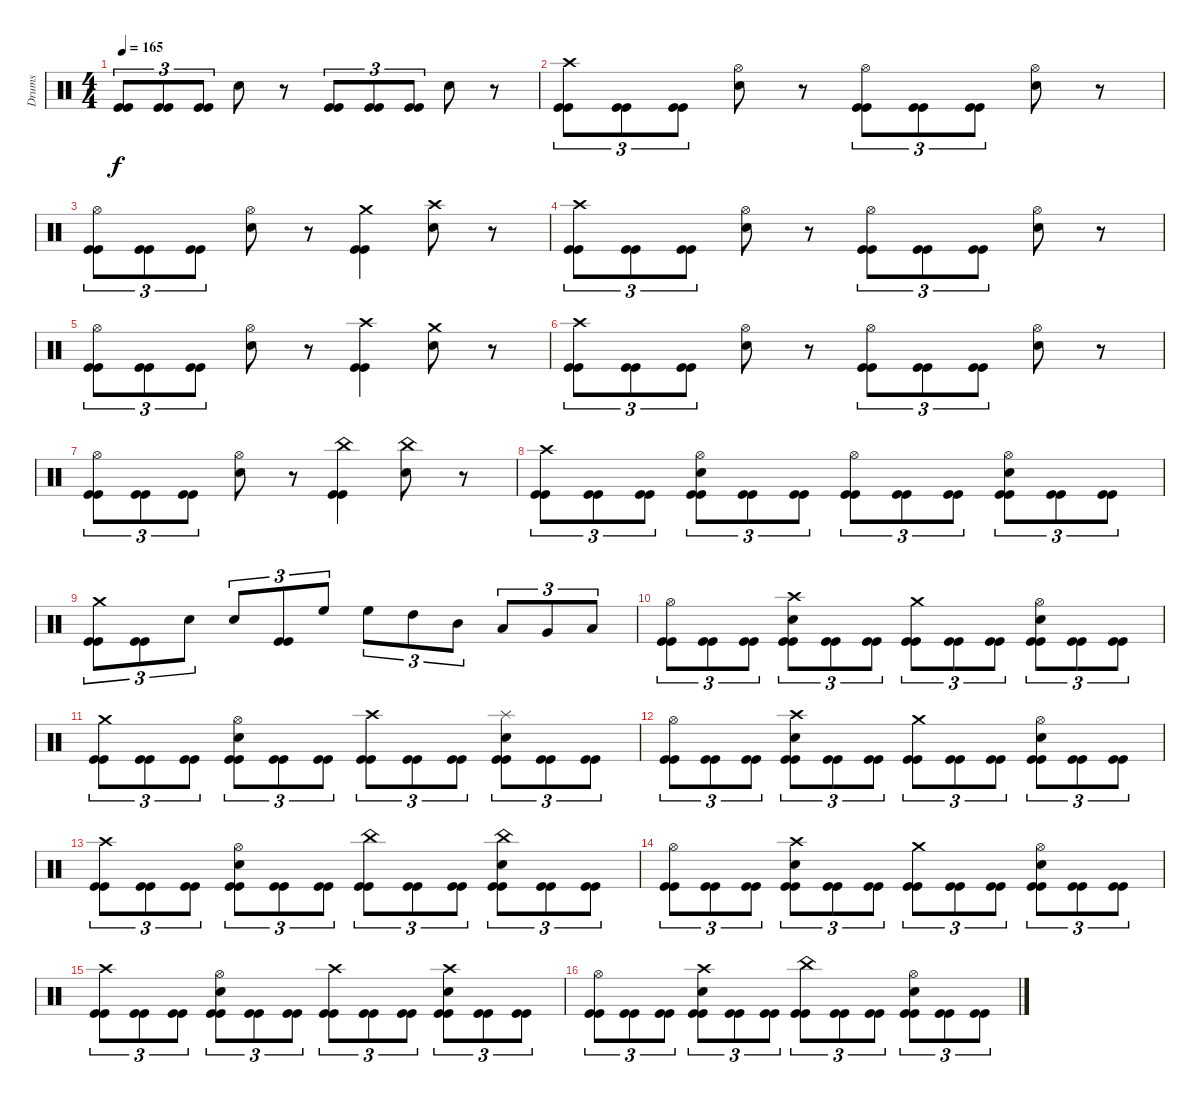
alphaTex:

\track ("Drums" "Drums") {instrument percussion}
\staff {score}
\articulation defaults
\ts (4 4)
\tempo 165
\clef neutral
\ks c
("Kick (hit)" "Kick (hit)").8{tu (3 2) dy f} ("Kick (hit)" "Kick (hit)").8{tu (3 2)} ("Kick (hit)" "Kick (hit)").8{tu (3 2)} "Snare (hit) 2".8 r.8 ("Kick (hit)" "Kick (hit)").8{tu (3 2)} ("Kick (hit)" "Kick (hit)").8{tu (3 2)} ("Kick (hit)" "Kick (hit)").8{tu (3 2)} "Snare (hit) 2".8 r.8 |
("Kick (hit)" "Kick (hit)" "Crash high (hit)").8{tu (3 2)} ("Kick (hit)" "Kick (hit)").8{tu (3 2)} ("Kick (hit)" "Kick (hit)").8{tu (3 2)} ("Snare (hit) 2" "Hi-Hat (open)").8 r.8 ("Kick (hit)" "Kick (hit)" "Hi-Hat (open)").8{tu (3 2)} ("Kick (hit)" "Kick (hit)").8{tu (3 2)} ("Kick (hit)" "Kick (hit)").8{tu (3 2)} ("Snare (hit) 2" "Hi-Hat (open)").8 r.8 |
("Kick (hit)" "Kick (hit)" "Hi-Hat (open)").8{tu (3 2)} ("Kick (hit)" "Kick (hit)").8{tu (3 2)} ("Kick (hit)" "Kick (hit)").8{tu (3 2)} ("Snare (hit) 2" "Hi-Hat (open)").8 r.8 ("Kick (hit)" "Kick (hit)" "Crash medium (hit)").4 ("Snare (hit) 2" "Crash high (hit)").8 r.8 |
("Kick (hit)" "Kick (hit)" "Crash high (hit)").8{tu (3 2)} ("Kick (hit)" "Kick (hit)").8{tu (3 2)} ("Kick (hit)" "Kick (hit)").8{tu (3 2)} ("Snare (hit) 2" "Hi-Hat (open)").8 r.8 ("Kick (hit)" "Kick (hit)" "Hi-Hat (open)").8{tu (3 2)} ("Kick (hit)" "Kick (hit)").8{tu (3 2)} ("Kick (hit)" "Kick (hit)").8{tu (3 2)} ("Snare (hit) 2" "Hi-Hat (open)").8 r.8 |
("Kick (hit)" "Kick (hit)" "Hi-Hat (open)").8{tu (3 2)} ("Kick (hit)" "Kick (hit)").8{tu (3 2)} ("Kick (hit)" "Kick (hit)").8{tu (3 2)} ("Snare (hit) 2" "Hi-Hat (open)").8 r.8 ("Kick (hit)" "Kick (hit)" "Crash high (hit)").4 ("Snare (hit) 2" "Crash medium (hit)").8 r.8 |
("Kick (hit)" "Kick (hit)" "Crash high (hit)").8{tu (3 2)} ("Kick (hit)" "Kick (hit)").8{tu (3 2)} ("Kick (hit)" "Kick (hit)").8{tu (3 2)} ("Snare (hit) 2" "Hi-Hat (open)").8 r.8 ("Kick (hit)" "Kick (hit)" "Hi-Hat (open)").8{tu (3 2)} ("Kick (hit)" "Kick (hit)").8{tu (3 2)} ("Kick (hit)" "Kick (hit)").8{tu (3 2)} ("Snare (hit) 2" "Hi-Hat (open)").8 r.8 |
("Kick (hit)" "Kick (hit)" "Hi-Hat (open)").8{tu (3 2)} ("Kick (hit)" "Kick (hit)").8{tu (3 2)} ("Kick (hit)" "Kick (hit)").8{tu (3 2)} ("Snare (hit) 2" "Hi-Hat (open)").8 r.8 ("Kick (hit)" "Kick (hit)" "China (hit)").4 ("Snare (hit) 2" "China (hit)").8 r.8 |
("Kick (hit)" "Kick (hit)" "Crash high (hit)").8{tu (3 2)} ("Kick (hit)" "Kick (hit)").8{tu (3 2)} ("Kick (hit)" "Kick (hit)").8{tu (3 2)} ("Kick (hit)" "Kick (hit)" "Snare (hit) 2" "Hi-Hat (open)").8{tu (3 2)} ("Kick (hit)" "Kick (hit)").8{tu (3 2)} ("Kick (hit)" "Kick (hit)").8{tu (3 2)} ("Kick (hit)" "Kick (hit)" "Hi-Hat (open)").8{tu (3 2)} ("Kick (hit)" "Kick (hit)").8{tu (3 2)} ("Kick (hit)" "Kick (hit)").8{tu (3 2)} ("Kick (hit)" "Kick (hit)" "Snare (hit) 2" "Hi-Hat (open)").8{tu (3 2)} ("Kick (hit)" "Kick (hit)").8{tu (3 2)} ("Kick (hit)" "Kick (hit)").8{tu (3 2)} |
("Kick (hit)" "Kick (hit)" "Crash medium (hit)").8{tu (3 2)} ("Kick (hit)" "Kick (hit)").8{tu (3 2)} "Snare (hit) 2".8{tu (3 2)} "Snare (hit) 2".8{tu (3 2)} ("Kick (hit)" "Kick (hit)").8{tu (3 2)} "High Floor Tom (hit)".8{tu (3 2)} "High Floor Tom (hit)".8{tu (3 2)} "High Tom (hit)".8{tu (3 2)} "Mid Tom (hit)".8{tu (3 2)} "Low Tom (hit)".8{tu (3 2)} "Very Low Tom (hit)".8{tu (3 2)} "Low Floor Tom (hit)".8{tu (3 2)} |
("Kick (hit)" "Kick (hit)" "Hi-Hat (open)").8{tu (3 2)} ("Kick (hit)" "Kick (hit)").8{tu (3 2)} ("Kick (hit)" "Kick (hit)").8{tu (3 2)} ("Kick (hit)" "Kick (hit)" "Snare (hit) 2" "Crash high (hit)").8{tu (3 2)} ("Kick (hit)" "Kick (hit)").8{tu (3 2)} ("Kick (hit)" "Kick (hit)").8{tu (3 2)} ("Kick (hit)" "Kick (hit)" "Crash medium (hit)").8{tu (3 2)} ("Kick (hit)" "Kick (hit)").8{tu (3 2)} ("Kick (hit)" "Kick (hit)").8{tu (3 2)} ("Kick (hit)" "Kick (hit)" "Snare (hit) 2" "Hi-Hat (open)").8{tu (3 2)} ("Kick (hit)" "Kick (hit)").8{tu (3 2)} ("Kick (hit)" "Kick (hit)").8{tu (3 2)} |
("Kick (hit)" "Kick (hit)" "Crash medium (hit)").8{tu (3 2)} ("Kick (hit)" "Kick (hit)").8{tu (3 2)} ("Kick (hit)" "Kick (hit)").8{tu (3 2)} ("Kick (hit)" "Kick (hit)" "Snare (hit) 2" "Hi-Hat (open)").8{tu (3 2)} ("Kick (hit)" "Kick (hit)").8{tu (3 2)} ("Kick (hit)" "Kick (hit)").8{tu (3 2)} ("Kick (hit)" "Kick (hit)" "Crash high (hit)").8{tu (3 2)} ("Kick (hit)" "Kick (hit)").8{tu (3 2)} ("Kick (hit)" "Kick (hit)").8{tu (3 2)} ("Kick (hit)" "Kick (hit)" "Snare (hit) 2" "Splash (hit)").8{tu (3 2)} ("Kick (hit)" "Kick (hit)").8{tu (3 2)} ("Kick (hit)" "Kick (hit)").8{tu (3 2)} |
("Kick (hit)" "Kick (hit)" "Hi-Hat (open)").8{tu (3 2)} ("Kick (hit)" "Kick (hit)").8{tu (3 2)} ("Kick (hit)" "Kick (hit)").8{tu (3 2)} ("Kick (hit)" "Kick (hit)" "Snare (hit) 2" "Crash high (hit)").8{tu (3 2)} ("Kick (hit)" "Kick (hit)").8{tu (3 2)} ("Kick (hit)" "Kick (hit)").8{tu (3 2)} ("Kick (hit)" "Kick (hit)" "Crash medium (hit)").8{tu (3 2)} ("Kick (hit)" "Kick (hit)").8{tu (3 2)} ("Kick (hit)" "Kick (hit)").8{tu (3 2)} ("Kick (hit)" "Kick (hit)" "Snare (hit) 2" "Hi-Hat (open)").8{tu (3 2)} ("Kick (hit)" "Kick (hit)").8{tu (3 2)} ("Kick (hit)" "Kick (hit)").8{tu (3 2)} |
("Kick (hit)" "Kick (hit)" "Crash high (hit)").8{tu (3 2)} ("Kick (hit)" "Kick (hit)").8{tu (3 2)} ("Kick (hit)" "Kick (hit)").8{tu (3 2)} ("Kick (hit)" "Kick (hit)" "Snare (hit) 2" "Hi-Hat (open)").8{tu (3 2)} ("Kick (hit)" "Kick (hit)").8{tu (3 2)} ("Kick (hit)" "Kick (hit)").8{tu (3 2)} ("Kick (hit)" "Kick (hit)" "China (hit)").8{tu (3 2)} ("Kick (hit)" "Kick (hit)").8{tu (3 2)} ("Kick (hit)" "Kick (hit)").8{tu (3 2)} ("Kick (hit)" "Kick (hit)" "Snare (hit) 2" "China (hit)").8{tu (3 2)} ("Kick (hit)" "Kick (hit)").8{tu (3 2)} ("Kick (hit)" "Kick (hit)").8{tu (3 2)} |
("Kick (hit)" "Kick (hit)" "Hi-Hat (open)").8{tu (3 2)} ("Kick (hit)" "Kick (hit)").8{tu (3 2)} ("Kick (hit)" "Kick (hit)").8{tu (3 2)} ("Kick (hit)" "Kick (hit)" "Snare (hit) 2" "Crash high (hit)").8{tu (3 2)} ("Kick (hit)" "Kick (hit)").8{tu (3 2)} ("Kick (hit)" "Kick (hit)").8{tu (3 2)} ("Kick (hit)" "Kick (hit)" "Crash medium (hit)").8{tu (3 2)} ("Kick (hit)" "Kick (hit)").8{tu (3 2)} ("Kick (hit)" "Kick (hit)").8{tu (3 2)} ("Kick (hit)" "Kick (hit)" "Snare (hit) 2" "Hi-Hat (open)").8{tu (3 2)} ("Kick (hit)" "Kick (hit)").8{tu (3 2)} ("Kick (hit)" "Kick (hit)").8{tu (3 2)} |
("Kick (hit)" "Kick (hit)" "Crash high (hit)").8{tu (3 2)} ("Kick (hit)" "Kick (hit)").8{tu (3 2)} ("Kick (hit)" "Kick (hit)").8{tu (3 2)} ("Kick (hit)" "Kick (hit)" "Snare (hit) 2" "Hi-Hat (open)").8{tu (3 2)} ("Kick (hit)" "Kick (hit)").8{tu (3 2)} ("Kick (hit)" "Kick (hit)").8{tu (3 2)} ("Kick (hit)" "Kick (hit)" "Crash high (hit)").8{tu (3 2)} ("Kick (hit)" "Kick (hit)").8{tu (3 2)} ("Kick (hit)" "Kick (hit)").8{tu (3 2)} ("Kick (hit)" "Kick (hit)" "Snare (hit) 2" "Crash high (hit)").8{tu (3 2)} ("Kick (hit)" "Kick (hit)").8{tu (3 2)} ("Kick (hit)" "Kick (hit)").8{tu (3 2)} |
("Kick (hit)" "Kick (hit)" "Hi-Hat (open)").8{tu (3 2)} ("Kick (hit)" "Kick (hit)").8{tu (3 2)} ("Kick (hit)" "Kick (hit)").8{tu (3 2)} ("Kick (hit)" "Kick (hit)" "Snare (hit) 2" "Crash high (hit)").8{tu (3 2)} ("Kick (hit)" "Kick (hit)").8{tu (3 2)} ("Kick (hit)" "Kick (hit)").8{tu (3 2)} ("Kick (hit)" "Kick (hit)" "China (hit)").8{tu (3 2)} ("Kick (hit)" "Kick (hit)").8{tu (3 2)} ("Kick (hit)" "Kick (hit)").8{tu (3 2)} ("Kick (hit)" "Kick (hit)" "Snare (hit) 2" "Hi-Hat (open)").8{tu (3 2)} ("Kick (hit)" "Kick (hit)").8{tu (3 2)} ("Kick (hit)" "Kick (hit)").8{tu (3 2)}
